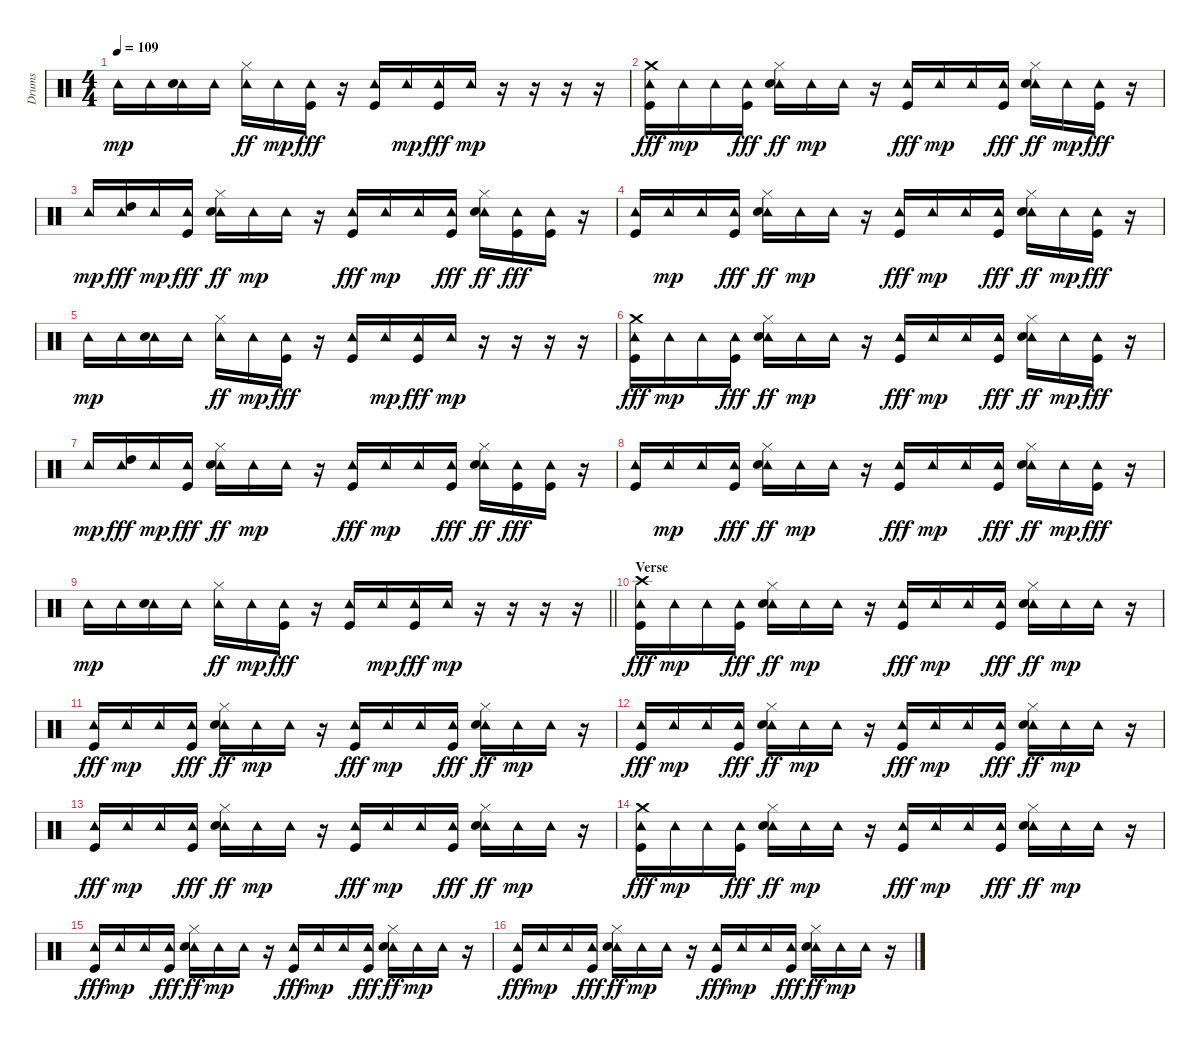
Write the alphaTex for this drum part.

\track ("Drums" "Drums") {instrument percussion}
\staff {score}
\articulation defaults
\ts (4 4)
\tempo 109
\clef neutral
\ks c "Tambourine (hit)".16{dy mp} "Tambourine (hit)".16
("Tambourine (hit)" "Electric Snare (hit)").16 "Tambourine (hit)".16 ("Tambourine (hit)" "Hi-Hat (closed)").16{dy ff} "Tambourine (hit)".16{dy mp} ("Tambourine (hit)" "Kick (hit)").16{dy fff} r.16 ("Tambourine (hit)" "Kick (hit)").16 "Tambourine (hit)".16{dy mp} ("Tambourine (hit)" "Kick (hit)").16{dy fff} "Tambourine (hit)".16{dy mp} r.16 r.16 r.16 r.16 |
("Crash medium (hit)" "Tambourine (hit)" "Kick (hit)").16{dy fff} "Tambourine (hit)".16{dy mp} "Tambourine (hit)".16 ("Tambourine (hit)" "Kick (hit)").16{dy fff} ("Tambourine (hit)" "Hi-Hat (closed)" "Electric Snare (hit)").16{dy ff} "Tambourine (hit)".16{dy mp} "Tambourine (hit)".16 r.16 ("Tambourine (hit)" "Kick (hit)").16{dy fff} "Tambourine (hit)".16{dy mp} "Tambourine (hit)".16 ("Tambourine (hit)" "Kick (hit)").16{dy fff} ("Tambourine (hit)" "Hi-Hat (closed)" "Electric Snare (hit)").16{dy ff} "Tambourine (hit)".16{dy mp} ("Tambourine (hit)" "Kick (hit)").16{dy fff} r.16 |
"Tambourine (hit)".16{dy mp} ("Tambourine (hit)" "High Tom (hit)").16{dy fff} "Tambourine (hit)".16{dy mp} ("Tambourine (hit)" "Kick (hit)").16{dy fff} ("Tambourine (hit)" "Hi-Hat (closed)" "Electric Snare (hit)").16{dy ff} "Tambourine (hit)".16{dy mp} "Tambourine (hit)".16 r.16 ("Tambourine (hit)" "Kick (hit)").16{dy fff} "Tambourine (hit)".16{dy mp} "Tambourine (hit)".16 ("Tambourine (hit)" "Kick (hit)").16{dy fff} ("Tambourine (hit)" "Hi-Hat (closed)" "Electric Snare (hit)").16{dy ff} ("Tambourine (hit)" "Kick (hit)").16{dy fff} ("Tambourine (hit)" "Kick (hit)").16 r.16 |
("Tambourine (hit)" "Kick (hit)").16 "Tambourine (hit)".16{dy mp} "Tambourine (hit)".16 ("Tambourine (hit)" "Kick (hit)").16{dy fff} ("Tambourine (hit)" "Hi-Hat (closed)" "Electric Snare (hit)").16{dy ff} "Tambourine (hit)".16{dy mp} "Tambourine (hit)".16 r.16 ("Tambourine (hit)" "Kick (hit)").16{dy fff} "Tambourine (hit)".16{dy mp} "Tambourine (hit)".16 ("Tambourine (hit)" "Kick (hit)").16{dy fff} ("Tambourine (hit)" "Hi-Hat (closed)" "Electric Snare (hit)").16{dy ff} "Tambourine (hit)".16{dy mp} ("Tambourine (hit)" "Kick (hit)").16{dy fff} r.16 |
"Tambourine (hit)".16{dy mp} "Tambourine (hit)".16 ("Tambourine (hit)" "Electric Snare (hit)").16 "Tambourine (hit)".16 ("Tambourine (hit)" "Hi-Hat (closed)").16{dy ff} "Tambourine (hit)".16{dy mp} ("Tambourine (hit)" "Kick (hit)").16{dy fff} r.16 ("Tambourine (hit)" "Kick (hit)").16 "Tambourine (hit)".16{dy mp} ("Tambourine (hit)" "Kick (hit)").16{dy fff} "Tambourine (hit)".16{dy mp} r.16 r.16 r.16 r.16 |
("Crash medium (hit)" "Tambourine (hit)" "Kick (hit)").16{dy fff} "Tambourine (hit)".16{dy mp} "Tambourine (hit)".16 ("Tambourine (hit)" "Kick (hit)").16{dy fff} ("Tambourine (hit)" "Hi-Hat (closed)" "Electric Snare (hit)").16{dy ff} "Tambourine (hit)".16{dy mp} "Tambourine (hit)".16 r.16 ("Tambourine (hit)" "Kick (hit)").16{dy fff} "Tambourine (hit)".16{dy mp} "Tambourine (hit)".16 ("Tambourine (hit)" "Kick (hit)").16{dy fff} ("Tambourine (hit)" "Hi-Hat (closed)" "Electric Snare (hit)").16{dy ff} "Tambourine (hit)".16{dy mp} ("Tambourine (hit)" "Kick (hit)").16{dy fff} r.16 |
"Tambourine (hit)".16{dy mp} ("Tambourine (hit)" "High Tom (hit)").16{dy fff} "Tambourine (hit)".16{dy mp} ("Tambourine (hit)" "Kick (hit)").16{dy fff} ("Tambourine (hit)" "Hi-Hat (closed)" "Electric Snare (hit)").16{dy ff} "Tambourine (hit)".16{dy mp} "Tambourine (hit)".16 r.16 ("Tambourine (hit)" "Kick (hit)").16{dy fff} "Tambourine (hit)".16{dy mp} "Tambourine (hit)".16 ("Tambourine (hit)" "Kick (hit)").16{dy fff} ("Tambourine (hit)" "Hi-Hat (closed)" "Electric Snare (hit)").16{dy ff} ("Tambourine (hit)" "Kick (hit)").16{dy fff} ("Tambourine (hit)" "Kick (hit)").16 r.16 |
("Tambourine (hit)" "Kick (hit)").16 "Tambourine (hit)".16{dy mp} "Tambourine (hit)".16 ("Tambourine (hit)" "Kick (hit)").16{dy fff} ("Tambourine (hit)" "Hi-Hat (closed)" "Electric Snare (hit)").16{dy ff} "Tambourine (hit)".16{dy mp} "Tambourine (hit)".16 r.16 ("Tambourine (hit)" "Kick (hit)").16{dy fff} "Tambourine (hit)".16{dy mp} "Tambourine (hit)".16 ("Tambourine (hit)" "Kick (hit)").16{dy fff} ("Tambourine (hit)" "Hi-Hat (closed)" "Electric Snare (hit)").16{dy ff} "Tambourine (hit)".16{dy mp} ("Tambourine (hit)" "Kick (hit)").16{dy fff} r.16 |
\barLineRight lightlight "Tambourine (hit)".16{dy mp} "Tambourine (hit)".16
("Tambourine (hit)" "Electric Snare (hit)").16 "Tambourine (hit)".16 ("Tambourine (hit)" "Hi-Hat (closed)").16{dy ff} "Tambourine (hit)".16{dy mp} ("Tambourine (hit)" "Kick (hit)").16{dy fff} r.16 ("Tambourine (hit)" "Kick (hit)").16 "Tambourine (hit)".16{dy mp} ("Tambourine (hit)" "Kick (hit)").16{dy fff} "Tambourine (hit)".16{dy mp} r.16 r.16 r.16 r.16 |
\section ("" "Verse")
("Crash high (hit)" "Tambourine (hit)" "Kick (hit)").16{dy fff} "Tambourine (hit)".16{dy mp} "Tambourine (hit)".16 ("Tambourine (hit)" "Kick (hit)").16{dy fff} ("Tambourine (hit)" "Hi-Hat (closed)" "Electric Snare (hit)").16{dy ff} "Tambourine (hit)".16{dy mp} "Tambourine (hit)".16 r.16 ("Tambourine (hit)" "Kick (hit)").16{dy fff} "Tambourine (hit)".16{dy mp} "Tambourine (hit)".16 ("Tambourine (hit)" "Kick (hit)").16{dy fff} ("Tambourine (hit)" "Hi-Hat (closed)" "Electric Snare (hit)").16{dy ff} "Tambourine (hit)".16{dy mp} "Tambourine (hit)".16 r.16 |
("Tambourine (hit)" "Kick (hit)").16{dy fff} "Tambourine (hit)".16{dy mp} "Tambourine (hit)".16 ("Tambourine (hit)" "Kick (hit)").16{dy fff} ("Tambourine (hit)" "Hi-Hat (closed)" "Electric Snare (hit)").16{dy ff} "Tambourine (hit)".16{dy mp} "Tambourine (hit)".16 r.16 ("Tambourine (hit)" "Kick (hit)").16{dy fff} "Tambourine (hit)".16{dy mp} "Tambourine (hit)".16 ("Tambourine (hit)" "Kick (hit)").16{dy fff} ("Tambourine (hit)" "Hi-Hat (closed)" "Electric Snare (hit)").16{dy ff} "Tambourine (hit)".16{dy mp} "Tambourine (hit)".16 r.16 |
("Tambourine (hit)" "Kick (hit)").16{dy fff} "Tambourine (hit)".16{dy mp} "Tambourine (hit)".16 ("Tambourine (hit)" "Kick (hit)").16{dy fff} ("Tambourine (hit)" "Hi-Hat (closed)" "Electric Snare (hit)").16{dy ff} "Tambourine (hit)".16{dy mp} "Tambourine (hit)".16 r.16 ("Tambourine (hit)" "Kick (hit)").16{dy fff} "Tambourine (hit)".16{dy mp} "Tambourine (hit)".16 ("Tambourine (hit)" "Kick (hit)").16{dy fff} ("Tambourine (hit)" "Hi-Hat (closed)" "Electric Snare (hit)").16{dy ff} "Tambourine (hit)".16{dy mp} "Tambourine (hit)".16 r.16 |
("Tambourine (hit)" "Kick (hit)").16{dy fff} "Tambourine (hit)".16{dy mp} "Tambourine (hit)".16 ("Tambourine (hit)" "Kick (hit)").16{dy fff} ("Tambourine (hit)" "Hi-Hat (closed)" "Electric Snare (hit)").16{dy ff} "Tambourine (hit)".16{dy mp} "Tambourine (hit)".16 r.16 ("Tambourine (hit)" "Kick (hit)").16{dy fff} "Tambourine (hit)".16{dy mp} "Tambourine (hit)".16 ("Tambourine (hit)" "Kick (hit)").16{dy fff} ("Tambourine (hit)" "Hi-Hat (closed)" "Electric Snare (hit)").16{dy ff} "Tambourine (hit)".16{dy mp} "Tambourine (hit)".16 r.16 |
("Crash medium (hit)" "Tambourine (hit)" "Kick (hit)").16{dy fff} "Tambourine (hit)".16{dy mp} "Tambourine (hit)".16 ("Tambourine (hit)" "Kick (hit)").16{dy fff} ("Tambourine (hit)" "Hi-Hat (closed)" "Electric Snare (hit)").16{dy ff} "Tambourine (hit)".16{dy mp} "Tambourine (hit)".16 r.16 ("Tambourine (hit)" "Kick (hit)").16{dy fff} "Tambourine (hit)".16{dy mp} "Tambourine (hit)".16 ("Tambourine (hit)" "Kick (hit)").16{dy fff} ("Tambourine (hit)" "Hi-Hat (closed)" "Electric Snare (hit)").16{dy ff} "Tambourine (hit)".16{dy mp} "Tambourine (hit)".16 r.16 |
("Tambourine (hit)" "Kick (hit)").16{dy fff} "Tambourine (hit)".16{dy mp} "Tambourine (hit)".16 ("Tambourine (hit)" "Kick (hit)").16{dy fff} ("Tambourine (hit)" "Hi-Hat (closed)" "Electric Snare (hit)").16{dy ff} "Tambourine (hit)".16{dy mp} "Tambourine (hit)".16 r.16 ("Tambourine (hit)" "Kick (hit)").16{dy fff} "Tambourine (hit)".16{dy mp} "Tambourine (hit)".16 ("Tambourine (hit)" "Kick (hit)").16{dy fff} ("Tambourine (hit)" "Hi-Hat (closed)" "Electric Snare (hit)").16{dy ff} "Tambourine (hit)".16{dy mp} "Tambourine (hit)".16 r.16 |
("Tambourine (hit)" "Kick (hit)").16{dy fff} "Tambourine (hit)".16{dy mp} "Tambourine (hit)".16 ("Tambourine (hit)" "Kick (hit)").16{dy fff} ("Tambourine (hit)" "Hi-Hat (closed)" "Electric Snare (hit)").16{dy ff} "Tambourine (hit)".16{dy mp} "Tambourine (hit)".16 r.16 ("Tambourine (hit)" "Kick (hit)").16{dy fff} "Tambourine (hit)".16{dy mp} "Tambourine (hit)".16 ("Tambourine (hit)" "Kick (hit)").16{dy fff} ("Tambourine (hit)" "Hi-Hat (closed)" "Electric Snare (hit)").16{dy ff} "Tambourine (hit)".16{dy mp} "Tambourine (hit)".16 r.16
